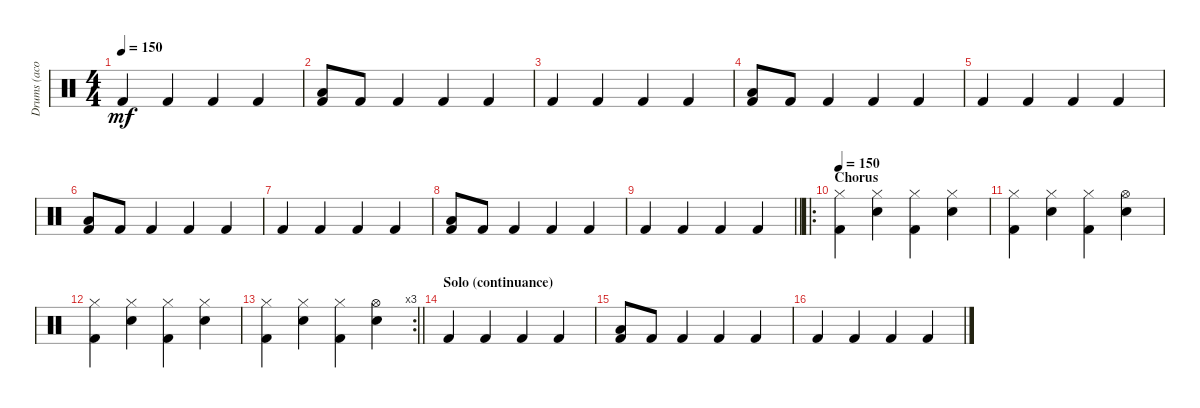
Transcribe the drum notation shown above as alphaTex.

\track ("Drums (acoustic drumset)" "Drums (aco") {instrument percussion}
\staff {score}
\articulation defaults
\ts (4 4)
\tempo 150
\clef neutral
\ks c "Kick (hit) 2".4{dy mf} "Kick (hit) 2".4 "Kick (hit) 2".4 "Kick (hit) 2".4
|
("Low Floor Tom (hit)" "Kick (hit) 2").8 "Kick (hit) 2".8 "Kick (hit) 2".4 "Kick (hit) 2".4 "Kick (hit) 2".4 |
"Kick (hit) 2".4 "Kick (hit) 2".4 "Kick (hit) 2".4 "Kick (hit) 2".4 |
("Low Floor Tom (hit)" "Kick (hit) 2").8 "Kick (hit) 2".8 "Kick (hit) 2".4 "Kick (hit) 2".4 "Kick (hit) 2".4 |
"Kick (hit) 2".4 "Kick (hit) 2".4 "Kick (hit) 2".4 "Kick (hit) 2".4 |
("Low Floor Tom (hit)" "Kick (hit) 2").8 "Kick (hit) 2".8 "Kick (hit) 2".4 "Kick (hit) 2".4 "Kick (hit) 2".4 |
"Kick (hit) 2".4 "Kick (hit) 2".4 "Kick (hit) 2".4 "Kick (hit) 2".4 |
("Low Floor Tom (hit)" "Kick (hit) 2").8 "Kick (hit) 2".8 "Kick (hit) 2".4 "Kick (hit) 2".4 "Kick (hit) 2".4 |
\barLineRight lightlight "Kick (hit) 2".4 "Kick (hit) 2".4 "Kick (hit) 2".4 "Kick (hit) 2".4
|
\ro
\section ("" "Chorus")
\tempo 150
("Hi-Hat (closed)" "Kick (hit) 2").4 ("Hi-Hat (closed)" "Electric Snare (hit)").4 ("Hi-Hat (closed)" "Kick (hit) 2").4 ("Hi-Hat (closed)" "Electric Snare (hit)").4 |
("Hi-Hat (closed)" "Kick (hit) 2").4 ("Hi-Hat (closed)" "Electric Snare (hit)").4 ("Hi-Hat (closed)" "Kick (hit) 2").4 ("Hi-Hat (open)" "Electric Snare (hit)").4 |
("Hi-Hat (closed)" "Kick (hit) 2").4 ("Hi-Hat (closed)" "Electric Snare (hit)").4 ("Hi-Hat (closed)" "Kick (hit) 2").4 ("Hi-Hat (closed)" "Electric Snare (hit)").4 |
\rc 3
\barLineRight lightlight
("Hi-Hat (closed)" "Kick (hit) 2").4 ("Hi-Hat (closed)" "Electric Snare (hit)").4 ("Hi-Hat (closed)" "Kick (hit) 2").4 ("Hi-Hat (open)" "Electric Snare (hit)").4 |
\section ("" "Solo (continuance)")
"Kick (hit) 2".4 "Kick (hit) 2".4 "Kick (hit) 2".4 "Kick (hit) 2".4 |
("Low Floor Tom (hit)" "Kick (hit) 2").8 "Kick (hit) 2".8 "Kick (hit) 2".4 "Kick (hit) 2".4 "Kick (hit) 2".4 |
"Kick (hit) 2".4 "Kick (hit) 2".4 "Kick (hit) 2".4 "Kick (hit) 2".4
